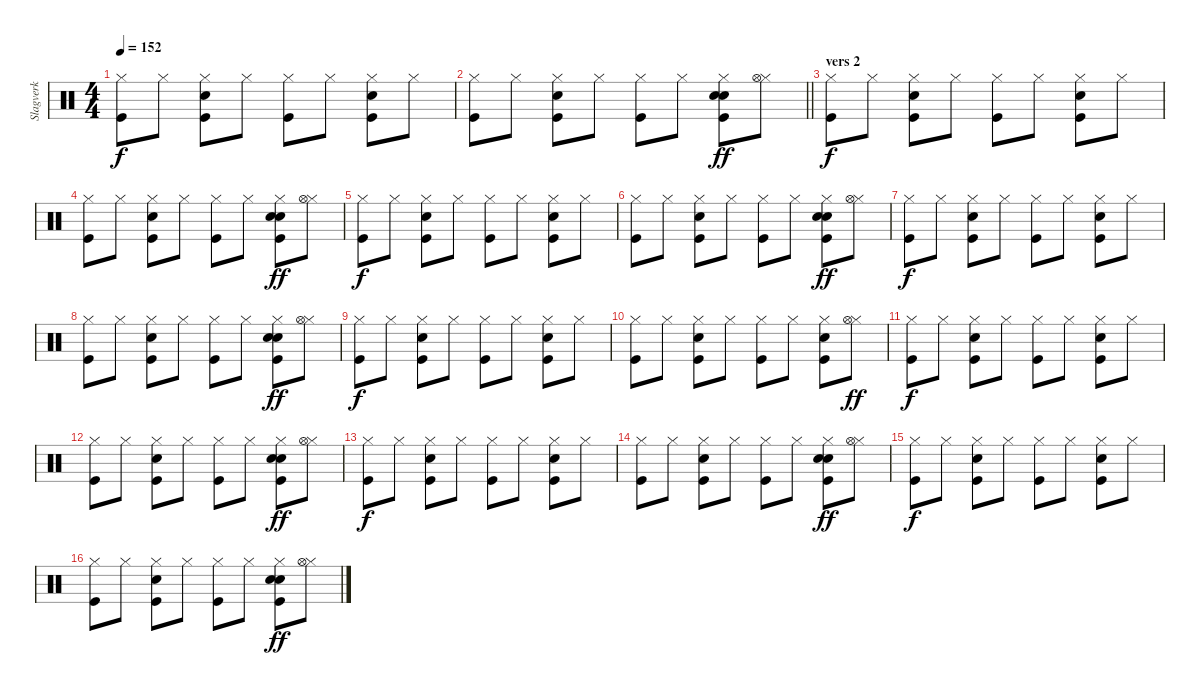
\track ("Slagverk" "Slagverk") {instrument percussion}
\staff {score}
\articulation defaults
\ts (4 4)
\tempo 152
\clef neutral
\ks c
("Kick (hit)" "Hi-Hat (closed)").8{dy f} "Hi-Hat (closed)".8 ("Kick (hit)" "Hi-Hat (closed)" "Snare (hit) 2").8 "Hi-Hat (closed)".8 ("Kick (hit)" "Hi-Hat (closed)").8 "Hi-Hat (closed)".8 ("Kick (hit)" "Hi-Hat (closed)" "Snare (hit) 2").8 "Hi-Hat (closed)".8 |
\barLineRight lightlight
("Kick (hit)" "Hi-Hat (closed)").8 "Hi-Hat (closed)".8 ("Kick (hit)" "Hi-Hat (closed)" "Snare (hit) 2").8 "Hi-Hat (closed)".8 ("Kick (hit)" "Hi-Hat (closed)").8 "Hi-Hat (closed)".8 ("Kick (hit)" "Hi-Hat (closed)" "Electric Snare (hit)" "Snare (hit) 2").8{dy ff} ("Hi-Hat (closed)" "Hi-Hat (open)").8 |
\section ("" "vers 2")
("Kick (hit)" "Hi-Hat (closed)").8{dy f} "Hi-Hat (closed)".8 ("Kick (hit)" "Hi-Hat (closed)" "Snare (hit) 2").8 "Hi-Hat (closed)".8 ("Kick (hit)" "Hi-Hat (closed)").8 "Hi-Hat (closed)".8 ("Kick (hit)" "Hi-Hat (closed)" "Snare (hit) 2").8 "Hi-Hat (closed)".8 |
("Kick (hit)" "Hi-Hat (closed)").8 "Hi-Hat (closed)".8 ("Kick (hit)" "Hi-Hat (closed)" "Snare (hit) 2").8 "Hi-Hat (closed)".8 ("Kick (hit)" "Hi-Hat (closed)").8 "Hi-Hat (closed)".8 ("Kick (hit)" "Hi-Hat (closed)" "Electric Snare (hit)" "Snare (hit) 2").8{dy ff} ("Hi-Hat (closed)" "Hi-Hat (open)").8 |
("Kick (hit)" "Hi-Hat (closed)").8{dy f} "Hi-Hat (closed)".8 ("Kick (hit)" "Hi-Hat (closed)" "Snare (hit) 2").8 "Hi-Hat (closed)".8 ("Kick (hit)" "Hi-Hat (closed)").8 "Hi-Hat (closed)".8 ("Kick (hit)" "Hi-Hat (closed)" "Snare (hit) 2").8 "Hi-Hat (closed)".8 |
("Kick (hit)" "Hi-Hat (closed)").8 "Hi-Hat (closed)".8 ("Kick (hit)" "Hi-Hat (closed)" "Snare (hit) 2").8 "Hi-Hat (closed)".8 ("Kick (hit)" "Hi-Hat (closed)").8 "Hi-Hat (closed)".8 ("Kick (hit)" "Hi-Hat (closed)" "Electric Snare (hit)" "Snare (hit) 2").8{dy ff} ("Hi-Hat (closed)" "Hi-Hat (open)").8 |
("Kick (hit)" "Hi-Hat (closed)").8{dy f} "Hi-Hat (closed)".8 ("Kick (hit)" "Hi-Hat (closed)" "Snare (hit) 2").8 "Hi-Hat (closed)".8 ("Kick (hit)" "Hi-Hat (closed)").8 "Hi-Hat (closed)".8 ("Kick (hit)" "Hi-Hat (closed)" "Snare (hit) 2").8 "Hi-Hat (closed)".8 |
("Kick (hit)" "Hi-Hat (closed)").8 "Hi-Hat (closed)".8 ("Kick (hit)" "Hi-Hat (closed)" "Snare (hit) 2").8 "Hi-Hat (closed)".8 ("Kick (hit)" "Hi-Hat (closed)").8 "Hi-Hat (closed)".8 ("Kick (hit)" "Hi-Hat (closed)" "Electric Snare (hit)" "Snare (hit) 2").8{dy ff} ("Hi-Hat (closed)" "Hi-Hat (open)").8 |
("Kick (hit)" "Hi-Hat (closed)").8{dy f} "Hi-Hat (closed)".8 ("Kick (hit)" "Hi-Hat (closed)" "Snare (hit) 2").8 "Hi-Hat (closed)".8 ("Kick (hit)" "Hi-Hat (closed)").8 "Hi-Hat (closed)".8 ("Kick (hit)" "Hi-Hat (closed)" "Snare (hit) 2").8 "Hi-Hat (closed)".8 |
("Kick (hit)" "Hi-Hat (closed)").8 "Hi-Hat (closed)".8 ("Kick (hit)" "Hi-Hat (closed)" "Snare (hit) 2").8 "Hi-Hat (closed)".8 ("Kick (hit)" "Hi-Hat (closed)").8 "Hi-Hat (closed)".8 ("Kick (hit)" "Hi-Hat (closed)" "Snare (hit) 2").8 ("Hi-Hat (closed)" "Hi-Hat (open)").8{dy ff} |
("Kick (hit)" "Hi-Hat (closed)").8{dy f} "Hi-Hat (closed)".8 ("Kick (hit)" "Hi-Hat (closed)" "Snare (hit) 2").8 "Hi-Hat (closed)".8 ("Kick (hit)" "Hi-Hat (closed)").8 "Hi-Hat (closed)".8 ("Kick (hit)" "Hi-Hat (closed)" "Snare (hit) 2").8 "Hi-Hat (closed)".8 |
("Kick (hit)" "Hi-Hat (closed)").8 "Hi-Hat (closed)".8 ("Kick (hit)" "Hi-Hat (closed)" "Snare (hit) 2").8 "Hi-Hat (closed)".8 ("Kick (hit)" "Hi-Hat (closed)").8 "Hi-Hat (closed)".8 ("Kick (hit)" "Hi-Hat (closed)" "Electric Snare (hit)" "Snare (hit) 2").8{dy ff} ("Hi-Hat (closed)" "Hi-Hat (open)").8 |
("Kick (hit)" "Hi-Hat (closed)").8{dy f} "Hi-Hat (closed)".8 ("Kick (hit)" "Hi-Hat (closed)" "Snare (hit) 2").8 "Hi-Hat (closed)".8 ("Kick (hit)" "Hi-Hat (closed)").8 "Hi-Hat (closed)".8 ("Kick (hit)" "Hi-Hat (closed)" "Snare (hit) 2").8 "Hi-Hat (closed)".8 |
("Kick (hit)" "Hi-Hat (closed)").8 "Hi-Hat (closed)".8 ("Kick (hit)" "Hi-Hat (closed)" "Snare (hit) 2").8 "Hi-Hat (closed)".8 ("Kick (hit)" "Hi-Hat (closed)").8 "Hi-Hat (closed)".8 ("Kick (hit)" "Hi-Hat (closed)" "Electric Snare (hit)" "Snare (hit) 2").8{dy ff} ("Hi-Hat (closed)" "Hi-Hat (open)").8 |
("Kick (hit)" "Hi-Hat (closed)").8{dy f} "Hi-Hat (closed)".8 ("Kick (hit)" "Hi-Hat (closed)" "Snare (hit) 2").8 "Hi-Hat (closed)".8 ("Kick (hit)" "Hi-Hat (closed)").8 "Hi-Hat (closed)".8 ("Kick (hit)" "Hi-Hat (closed)" "Snare (hit) 2").8 "Hi-Hat (closed)".8 |
("Kick (hit)" "Hi-Hat (closed)").8 "Hi-Hat (closed)".8 ("Kick (hit)" "Hi-Hat (closed)" "Snare (hit) 2").8 "Hi-Hat (closed)".8 ("Kick (hit)" "Hi-Hat (closed)").8 "Hi-Hat (closed)".8 ("Kick (hit)" "Hi-Hat (closed)" "Electric Snare (hit)" "Snare (hit) 2").8{dy ff} ("Hi-Hat (closed)" "Hi-Hat (open)").8
